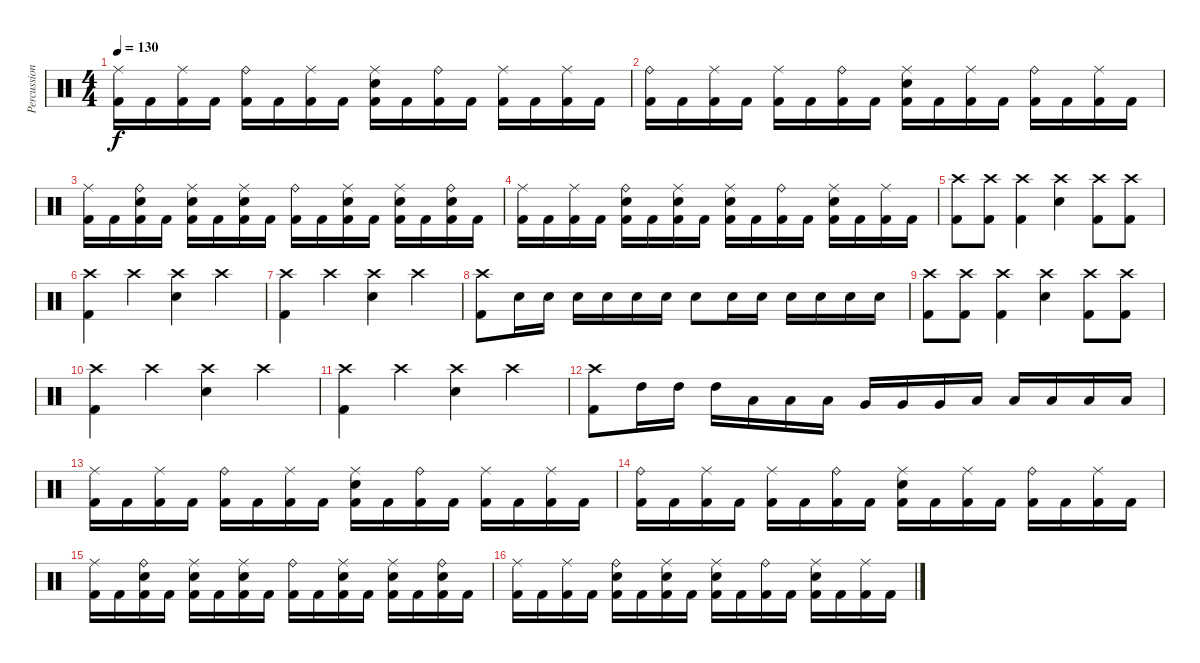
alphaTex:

\track ("Percussion" "Percussion") {instrument percussion}
\staff {score}
\articulation defaults
\ts (4 4)
\tempo 130
\clef neutral
\ks c
("Ride (middle)" "Kick (hit) 2").16{dy f} "Kick (hit) 2".16 ("Ride (middle)" "Kick (hit) 2").16 "Kick (hit) 2".16 ("Ride (bell)" "Kick (hit) 2").16 "Kick (hit) 2".16 ("Ride (middle)" "Kick (hit) 2").16 "Kick (hit) 2".16 ("Ride (middle)" "Electric Snare (hit)" "Kick (hit) 2").16 "Kick (hit) 2".16 ("Ride (bell)" "Kick (hit) 2").16 "Kick (hit) 2".16 ("Ride (middle)" "Kick (hit) 2").16 "Kick (hit) 2".16 ("Ride (middle)" "Kick (hit) 2").16 "Kick (hit) 2".16 |
("Ride (bell)" "Kick (hit) 2").16 "Kick (hit) 2".16 ("Ride (middle)" "Kick (hit) 2").16 "Kick (hit) 2".16 ("Ride (middle)" "Kick (hit) 2").16 "Kick (hit) 2".16 ("Ride (bell)" "Kick (hit) 2").16 "Kick (hit) 2".16 ("Ride (middle)" "Electric Snare (hit)" "Kick (hit) 2").16 "Kick (hit) 2".16 ("Ride (middle)" "Kick (hit) 2").16 "Kick (hit) 2".16 ("Ride (bell)" "Kick (hit) 2").16 "Kick (hit) 2".16 ("Ride (middle)" "Kick (hit) 2").16 "Kick (hit) 2".16 |
("Ride (middle)" "Kick (hit) 2").16 "Kick (hit) 2".16 ("Ride (bell)" "Electric Snare (hit)" "Kick (hit) 2").16 "Kick (hit) 2".16 ("Ride (middle)" "Electric Snare (hit)" "Kick (hit) 2").16 "Kick (hit) 2".16 ("Ride (middle)" "Electric Snare (hit)" "Kick (hit) 2").16 "Kick (hit) 2".16 ("Ride (bell)" "Kick (hit) 2").16 "Kick (hit) 2".16 ("Ride (middle)" "Electric Snare (hit)" "Kick (hit) 2").16 "Kick (hit) 2".16 ("Ride (middle)" "Electric Snare (hit)" "Kick (hit) 2").16 "Kick (hit) 2".16 ("Ride (bell)" "Electric Snare (hit)" "Kick (hit) 2").16 "Kick (hit) 2".16 |
("Ride (middle)" "Kick (hit) 2").16 "Kick (hit) 2".16 ("Ride (middle)" "Kick (hit) 2").16 "Kick (hit) 2".16 ("Ride (bell)" "Electric Snare (hit)" "Kick (hit) 2").16 "Kick (hit) 2".16 ("Ride (middle)" "Electric Snare (hit)" "Kick (hit) 2").16 "Kick (hit) 2".16 ("Ride (middle)" "Electric Snare (hit)" "Kick (hit) 2").16 "Kick (hit) 2".16 ("Ride (bell)" "Kick (hit) 2").16 "Kick (hit) 2".16 ("Ride (middle)" "Electric Snare (hit)" "Kick (hit) 2").16 "Kick (hit) 2".16 ("Ride (middle)" "Kick (hit) 2").16 "Kick (hit) 2".16 |
("Crash high (hit)" "Kick (hit) 2").8 ("Crash high (hit)" "Kick (hit) 2").8 ("Crash high (hit)" "Kick (hit) 2").4 ("Crash high (hit)" "Electric Snare (hit)").4 ("Crash high (hit)" "Kick (hit) 2").8 ("Crash high (hit)" "Kick (hit) 2").8 |
("Crash high (hit)" "Kick (hit) 2").4 "Crash high (hit)".4 ("Crash high (hit)" "Electric Snare (hit)").4 "Crash high (hit)".4 |
("Crash high (hit)" "Kick (hit) 2").4 "Crash high (hit)".4 ("Crash high (hit)" "Electric Snare (hit)").4 "Crash high (hit)".4 |
("Crash high (hit)" "Kick (hit) 2").8 "Electric Snare (hit)".16 "Electric Snare (hit)".16 "Electric Snare (hit)".16 "Electric Snare (hit)".16 "Electric Snare (hit)".16 "Electric Snare (hit)".16 "Electric Snare (hit)".8 "Electric Snare (hit)".16 "Electric Snare (hit)".16 "Electric Snare (hit)".16 "Electric Snare (hit)".16 "Electric Snare (hit)".16 "Electric Snare (hit)".16 |
("Crash high (hit)" "Kick (hit) 2").8 ("Crash high (hit)" "Kick (hit) 2").8 ("Crash high (hit)" "Kick (hit) 2").4 ("Crash high (hit)" "Electric Snare (hit)").4 ("Crash high (hit)" "Kick (hit) 2").8 ("Crash high (hit)" "Kick (hit) 2").8 |
("Crash high (hit)" "Kick (hit) 2").4 "Crash high (hit)".4 ("Crash high (hit)" "Electric Snare (hit)").4 "Crash high (hit)".4 |
("Crash high (hit)" "Kick (hit) 2").4 "Crash high (hit)".4 ("Crash high (hit)" "Electric Snare (hit)").4 "Crash high (hit)".4 |
("Crash high (hit)" "Kick (hit) 2").8 "High Tom (hit)".16 "High Tom (hit)".16 "High Tom (hit)".16 "Low Tom (hit)".16 "Low Tom (hit)".16 "Low Tom (hit)".16 "Very Low Tom (hit)".16 "Very Low Tom (hit)".16 "Very Low Tom (hit)".16 "Low Floor Tom (hit)".16 "Low Floor Tom (hit)".16 "Low Floor Tom (hit)".16 "Low Floor Tom (hit)".16 "Low Floor Tom (hit)".16 |
("Ride (middle)" "Kick (hit) 2").16 "Kick (hit) 2".16 ("Ride (middle)" "Kick (hit) 2").16 "Kick (hit) 2".16 ("Ride (bell)" "Kick (hit) 2").16 "Kick (hit) 2".16 ("Ride (middle)" "Kick (hit) 2").16 "Kick (hit) 2".16 ("Ride (middle)" "Electric Snare (hit)" "Kick (hit) 2").16 "Kick (hit) 2".16 ("Ride (bell)" "Kick (hit) 2").16 "Kick (hit) 2".16 ("Ride (middle)" "Kick (hit) 2").16 "Kick (hit) 2".16 ("Ride (middle)" "Kick (hit) 2").16 "Kick (hit) 2".16 |
("Ride (bell)" "Kick (hit) 2").16 "Kick (hit) 2".16 ("Ride (middle)" "Kick (hit) 2").16 "Kick (hit) 2".16 ("Ride (middle)" "Kick (hit) 2").16 "Kick (hit) 2".16 ("Ride (bell)" "Kick (hit) 2").16 "Kick (hit) 2".16 ("Ride (middle)" "Electric Snare (hit)" "Kick (hit) 2").16 "Kick (hit) 2".16 ("Ride (middle)" "Kick (hit) 2").16 "Kick (hit) 2".16 ("Ride (bell)" "Kick (hit) 2").16 "Kick (hit) 2".16 ("Ride (middle)" "Kick (hit) 2").16 "Kick (hit) 2".16 |
("Ride (middle)" "Kick (hit) 2").16 "Kick (hit) 2".16 ("Ride (bell)" "Electric Snare (hit)" "Kick (hit) 2").16 "Kick (hit) 2".16 ("Ride (middle)" "Electric Snare (hit)" "Kick (hit) 2").16 "Kick (hit) 2".16 ("Ride (middle)" "Electric Snare (hit)" "Kick (hit) 2").16 "Kick (hit) 2".16 ("Ride (bell)" "Kick (hit) 2").16 "Kick (hit) 2".16 ("Ride (middle)" "Electric Snare (hit)" "Kick (hit) 2").16 "Kick (hit) 2".16 ("Ride (middle)" "Electric Snare (hit)" "Kick (hit) 2").16 "Kick (hit) 2".16 ("Ride (bell)" "Electric Snare (hit)" "Kick (hit) 2").16 "Kick (hit) 2".16 |
("Ride (middle)" "Kick (hit) 2").16 "Kick (hit) 2".16 ("Ride (middle)" "Kick (hit) 2").16 "Kick (hit) 2".16 ("Ride (bell)" "Electric Snare (hit)" "Kick (hit) 2").16 "Kick (hit) 2".16 ("Ride (middle)" "Electric Snare (hit)" "Kick (hit) 2").16 "Kick (hit) 2".16 ("Ride (middle)" "Electric Snare (hit)" "Kick (hit) 2").16 "Kick (hit) 2".16 ("Ride (bell)" "Kick (hit) 2").16 "Kick (hit) 2".16 ("Ride (middle)" "Electric Snare (hit)" "Kick (hit) 2").16 "Kick (hit) 2".16 ("Ride (middle)" "Kick (hit) 2").16 "Kick (hit) 2".16
